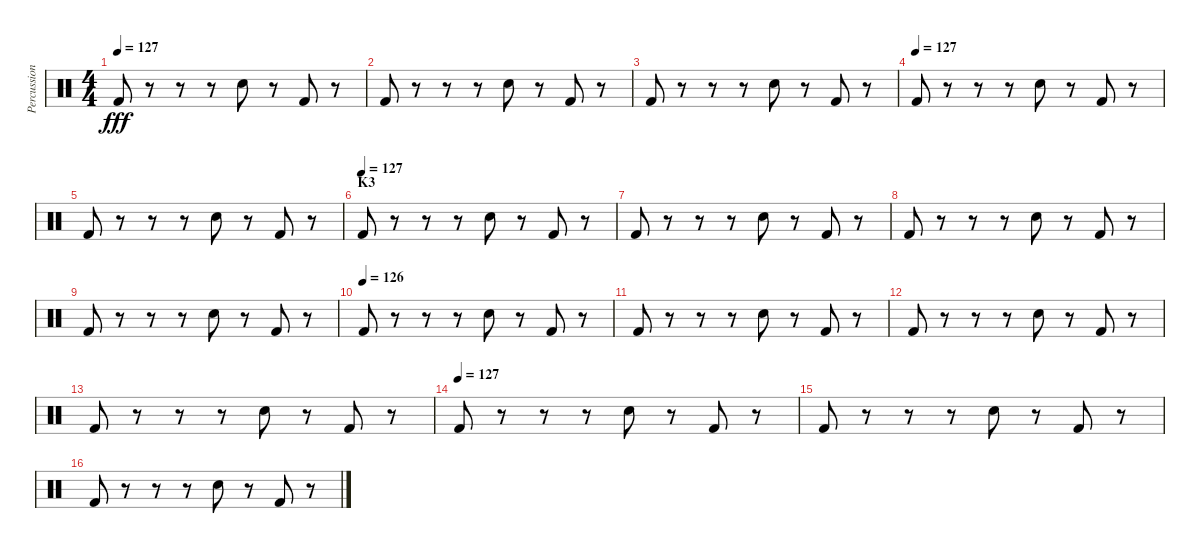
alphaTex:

\track ("Percussion" "Percussion") {instrument percussion}
\staff {score}
\articulation defaults
\ts (4 4)
\tempo 127
\clef neutral
\ks c "Kick (hit) 2".8{dy fff}
r.8 r.8 r.8 "Electric Snare (hit)".8 r.8 "Kick (hit) 2".8 r.8 |
"Kick (hit) 2".8 r.8 r.8 r.8 "Electric Snare (hit)".8 r.8 "Kick (hit) 2".8 r.8 |
"Kick (hit) 2".8 r.8 r.8 r.8 "Electric Snare (hit)".8 r.8 "Kick (hit) 2".8 r.8 |
\tempo (127)
"Kick (hit) 2".8 r.8 r.8 r.8 "Electric Snare (hit)".8 r.8 "Kick (hit) 2".8 r.8 |
"Kick (hit) 2".8 r.8 r.8 r.8 "Electric Snare (hit)".8 r.8 "Kick (hit) 2".8 r.8 |
\section ("" "K3")
\tempo (127)
"Kick (hit) 2".8 r.8 r.8 r.8 "Electric Snare (hit)".8 r.8 "Kick (hit) 2".8 r.8 |
"Kick (hit) 2".8 r.8 r.8 r.8 "Electric Snare (hit)".8 r.8 "Kick (hit) 2".8 r.8 |
"Kick (hit) 2".8 r.8 r.8 r.8 "Electric Snare (hit)".8 r.8 "Kick (hit) 2".8 r.8 |
"Kick (hit) 2".8 r.8 r.8 r.8 "Electric Snare (hit)".8 r.8 "Kick (hit) 2".8 r.8 |
\tempo (126)
"Kick (hit) 2".8 r.8 r.8 r.8 "Electric Snare (hit)".8 r.8 "Kick (hit) 2".8 r.8 |
"Kick (hit) 2".8 r.8 r.8 r.8 "Electric Snare (hit)".8 r.8 "Kick (hit) 2".8 r.8 |
"Kick (hit) 2".8 r.8 r.8 r.8 "Electric Snare (hit)".8 r.8 "Kick (hit) 2".8 r.8 |
"Kick (hit) 2".8 r.8 r.8 r.8 "Electric Snare (hit)".8 r.8 "Kick (hit) 2".8 r.8 |
\tempo (127)
"Kick (hit) 2".8 r.8 r.8 r.8 "Electric Snare (hit)".8 r.8 "Kick (hit) 2".8 r.8 |
"Kick (hit) 2".8 r.8 r.8 r.8 "Electric Snare (hit)".8 r.8 "Kick (hit) 2".8 r.8 |
"Kick (hit) 2".8 r.8 r.8 r.8 "Electric Snare (hit)".8 r.8 "Kick (hit) 2".8 r.8
